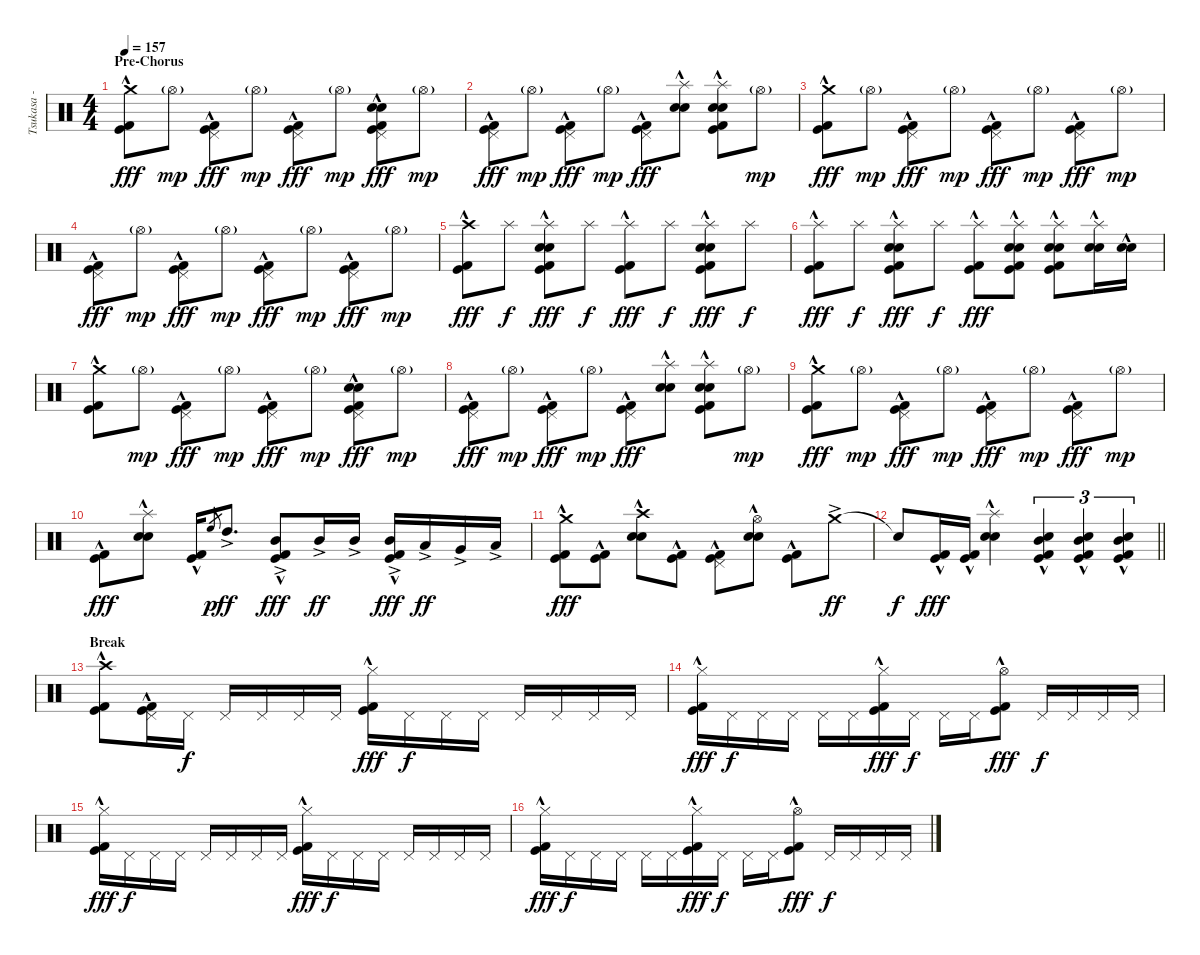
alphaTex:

\track ("Tsukasa - Drums" "Tsukasa - ") {instrument percussion}
\staff {score}
\articulation defaults
\ts (4 4)
\section ("" "Pre-Chorus")
\tempo 157
\clef neutral
\ks c
("Crash medium (hit)" "Kick (hit)"{hac} "Kick (hit) 2"{hac}).8{dy fff} "Hi-Hat (open)"{g}.8{dy mp} ("Pedal Hi-Hat (hit)" "Kick (hit)"{hac} "Kick (hit) 2"{hac}).8{dy fff} "Hi-Hat (open)"{g}.8{dy mp} ("Pedal Hi-Hat (hit)" "Kick (hit)"{hac} "Kick (hit) 2"{hac}).8{dy fff} "Hi-Hat (open)"{g}.8{dy mp} ("Pedal Hi-Hat (hit)" "Electric Snare (hit)"{hac} "Snare (hit) 2"{hac} "Kick (hit)"{hac} "Kick (hit) 2"{hac}).8{dy fff} "Hi-Hat (open)"{g}.8{dy mp} |
("Pedal Hi-Hat (hit)" "Kick (hit)"{hac} "Kick (hit) 2"{hac}).8{dy fff} "Hi-Hat (open)"{g}.8{dy mp} ("Pedal Hi-Hat (hit)" "Kick (hit)"{hac} "Kick (hit) 2"{hac}).8{dy fff} "Hi-Hat (open)"{g}.8{dy mp} ("Pedal Hi-Hat (hit)" "Kick (hit)"{hac} "Kick (hit) 2"{hac}).8{dy fff} ("Splash (hit)"{hac} "Electric Snare (hit)"{hac} "Snare (hit) 2"{hac}).8 ("Splash (hit)"{hac} "Electric Snare (hit)"{hac} "Snare (hit) 2"{hac} "Kick (hit)"{hac} "Kick (hit) 2"{hac}).8 "Hi-Hat (open)"{g}.8{dy mp} |
("Crash medium (hit)" "Kick (hit)"{hac} "Kick (hit) 2"{hac}).8{dy fff} "Hi-Hat (open)"{g}.8{dy mp} ("Pedal Hi-Hat (hit)" "Kick (hit)"{hac} "Kick (hit) 2"{hac}).8{dy fff} "Hi-Hat (open)"{g}.8{dy mp} ("Pedal Hi-Hat (hit)" "Kick (hit)"{hac} "Kick (hit) 2"{hac}).8{dy fff} "Hi-Hat (open)"{g}.8{dy mp} ("Pedal Hi-Hat (hit)" "Kick (hit)"{hac} "Kick (hit) 2"{hac}).8{dy fff} "Hi-Hat (open)"{g}.8{dy mp} |
("Pedal Hi-Hat (hit)" "Kick (hit)"{hac} "Kick (hit) 2"{hac}).8{dy fff} "Hi-Hat (open)"{g}.8{dy mp} ("Pedal Hi-Hat (hit)" "Kick (hit)"{hac} "Kick (hit) 2"{hac}).8{dy fff} "Hi-Hat (open)"{g}.8{dy mp} ("Pedal Hi-Hat (hit)" "Kick (hit)"{hac} "Kick (hit) 2"{hac}).8{dy fff} "Hi-Hat (open)"{g}.8{dy mp} ("Pedal Hi-Hat (hit)" "Kick (hit)"{hac} "Kick (hit) 2"{hac}).8{dy fff} "Hi-Hat (open)"{g}.8{dy mp} |
("Crash high (hit)" "Kick (hit)"{hac} "Kick (hit) 2"{hac}).8{dy fff} "Splash (hit)".8{dy f} ("Splash (hit)"{hac} "Electric Snare (hit)"{hac} "Snare (hit) 2" "Kick (hit)"{hac} "Kick (hit) 2"{hac}).8{dy fff} "Splash (hit)".8{dy f} ("Splash (hit)"{hac} "Kick (hit)"{hac} "Kick (hit) 2"{hac}).8{dy fff} "Splash (hit)".8{dy f} ("Splash (hit)"{hac} "Electric Snare (hit)"{hac} "Snare (hit) 2" "Kick (hit)"{hac} "Kick (hit) 2"{hac}).8{dy fff} "Splash (hit)".8{dy f} |
("Splash (hit)"{hac} "Kick (hit)"{hac} "Kick (hit) 2"{hac}).8{dy fff} "Splash (hit)".8{dy f} ("Splash (hit)"{hac} "Electric Snare (hit)"{hac} "Snare (hit) 2" "Kick (hit)"{hac} "Kick (hit) 2"{hac}).8{dy fff} "Splash (hit)".8{dy f} ("Splash (hit)"{hac} "Kick (hit)"{hac} "Kick (hit) 2"{hac}).8{dy fff} ("Splash (hit)" "Electric Snare (hit)"{hac} "Snare (hit) 2"{hac} "Kick (hit)"{hac} "Kick (hit) 2"{hac}).8 ("Splash (hit)"{hac} "Electric Snare (hit)"{hac} "Snare (hit) 2"{hac} "Kick (hit)"{hac} "Kick (hit) 2"{hac}).8 ("Splash (hit)" "Electric Snare (hit)"{hac} "Snare (hit) 2"{hac}).16 ("Electric Snare (hit)"{hac} "Snare (hit) 2"{hac}).16 |
("Crash medium (hit)" "Kick (hit)"{hac} "Kick (hit) 2"{hac}).8 "Hi-Hat (open)"{g}.8{dy mp} ("Pedal Hi-Hat (hit)" "Kick (hit)"{hac} "Kick (hit) 2"{hac}).8{dy fff} "Hi-Hat (open)"{g}.8{dy mp} ("Pedal Hi-Hat (hit)" "Kick (hit)"{hac} "Kick (hit) 2"{hac}).8{dy fff} "Hi-Hat (open)"{g}.8{dy mp} ("Pedal Hi-Hat (hit)" "Electric Snare (hit)"{hac} "Snare (hit) 2"{hac} "Kick (hit)"{hac} "Kick (hit) 2"{hac}).8{dy fff} "Hi-Hat (open)"{g}.8{dy mp} |
("Pedal Hi-Hat (hit)" "Kick (hit)"{hac} "Kick (hit) 2"{hac}).8{dy fff} "Hi-Hat (open)"{g}.8{dy mp} ("Pedal Hi-Hat (hit)" "Kick (hit)"{hac} "Kick (hit) 2"{hac}).8{dy fff} "Hi-Hat (open)"{g}.8{dy mp} ("Pedal Hi-Hat (hit)" "Kick (hit)"{hac} "Kick (hit) 2"{hac}).8{dy fff} ("Splash (hit)"{hac} "Electric Snare (hit)"{hac} "Snare (hit) 2"{hac}).8 ("Splash (hit)"{hac} "Electric Snare (hit)"{hac} "Snare (hit) 2"{hac} "Kick (hit)"{hac} "Kick (hit) 2"{hac}).8 "Hi-Hat (open)"{g}.8{dy mp} |
("Crash medium (hit)" "Kick (hit)"{hac} "Kick (hit) 2"{hac}).8{dy fff} "Hi-Hat (open)"{g}.8{dy mp} ("Pedal Hi-Hat (hit)" "Kick (hit)"{hac} "Kick (hit) 2"{hac}).8{dy fff} "Hi-Hat (open)"{g}.8{dy mp} ("Pedal Hi-Hat (hit)" "Kick (hit)"{hac} "Kick (hit) 2"{hac}).8{dy fff} "Hi-Hat (open)"{g}.8{dy mp} ("Pedal Hi-Hat (hit)" "Kick (hit)"{hac} "Kick (hit) 2"{hac}).8{dy fff} "Hi-Hat (open)"{g}.8{dy mp} |
("Kick (hit)"{hac} "Kick (hit) 2"{hac}).8{dy fff} ("Splash (hit)"{hac} "Electric Snare (hit)"{hac} "Snare (hit) 2"{hac}).8 ("Kick (hit)"{hac} "Kick (hit) 2"{hac}).16 "High Floor Tom (hit)".8{gr dy p} "High Tom (hit)"{ac}.8{d dy ff} ("Mid Tom (hit)"{ac} "Kick (hit)"{hac} "Kick (hit) 2"{hac}).8{dy fff} "Mid Tom (hit)"{ac}.16{dy ff} "Mid Tom (hit)"{ac}.16 ("Mid Tom (hit)"{ac} "Kick (hit)"{hac} "Kick (hit) 2"{hac}).16{dy fff} "Low Tom (hit)"{ac}.16{dy ff} "Very Low Tom (hit)"{ac}.16 "Low Floor Tom (hit)"{ac}.16 |
("Crash medium (hit)" "Kick (hit)"{hac} "Kick (hit) 2"{hac}).8{dy fff} ("Kick (hit)"{hac} "Kick (hit) 2"{hac}).8 ("Crash high (hit)" "Electric Snare (hit)"{hac} "Snare (hit) 2"{hac}).8 ("Kick (hit)"{hac} "Kick (hit) 2"{hac}).8 ("Pedal Hi-Hat (hit)" "Kick (hit)"{hac} "Kick (hit) 2"{hac}).8 ("Hi-Hat (open)" "Electric Snare (hit)"{hac} "Snare (hit) 2"{hac}).8 ("Kick (hit)"{hac} "Kick (hit) 2"{hac}).8 "Crash medium (hit)"{ac}.8{dy ff} |
\barLineRight lightlight "Snare (hit)"{t}.8{dy f}
("Kick (hit)"{hac} "Kick (hit) 2"{hac}).16{dy fff} ("Kick (hit)"{hac} "Kick (hit) 2"{hac}).16 ("Splash (hit)"{hac} "Electric Snare (hit)"{hac} "Snare (hit) 2"{hac}).4 ("Electric Snare (hit)"{hac} "Mid Tom (hit)" "Kick (hit)"{hac} "Kick (hit) 2"{hac}).4{tu (3 2)} ("Electric Snare (hit)"{hac} "Mid Tom (hit)" "Kick (hit)"{hac} "Kick (hit) 2"{hac}).4{tu (3 2)} ("Electric Snare (hit)"{hac} "Mid Tom (hit)" "Kick (hit)"{hac} "Kick (hit) 2"{hac}).4{tu (3 2)} |
\section ("" "Break")
("Crash high (hit)" "Kick (hit)"{hac} "Kick (hit) 2"{hac}).8 ("Pedal Hi-Hat (hit)" "Kick (hit)"{hac} "Kick (hit) 2"{hac}).16 "Pedal Hi-Hat (hit)".16{dy f} "Pedal Hi-Hat (hit)".16 "Pedal Hi-Hat (hit)".16 "Pedal Hi-Hat (hit)".16 "Pedal Hi-Hat (hit)".16 ("Hi-Hat (closed)" "Kick (hit)"{hac} "Kick (hit) 2"{hac}).16{dy fff} "Pedal Hi-Hat (hit)".16{dy f} "Pedal Hi-Hat (hit)".16 "Pedal Hi-Hat (hit)".16 "Pedal Hi-Hat (hit)".16 "Pedal Hi-Hat (hit)".16 "Pedal Hi-Hat (hit)".16 "Pedal Hi-Hat (hit)".16 |
("Hi-Hat (closed)" "Kick (hit)"{hac} "Kick (hit) 2"{hac}).16{dy fff} "Pedal Hi-Hat (hit)".16{dy f} "Pedal Hi-Hat (hit)".16 "Pedal Hi-Hat (hit)".16 "Pedal Hi-Hat (hit)".16 "Pedal Hi-Hat (hit)".16 ("Hi-Hat (closed)" "Kick (hit)"{hac} "Kick (hit) 2"{hac}).16{dy fff} "Pedal Hi-Hat (hit)".16{dy f} "Pedal Hi-Hat (hit)".16 "Pedal Hi-Hat (hit)".16 ("Hi-Hat (open)" "Kick (hit)"{hac} "Kick (hit) 2"{hac}).8{dy fff} "Pedal Hi-Hat (hit)".16{dy f} "Pedal Hi-Hat (hit)".16 "Pedal Hi-Hat (hit)".16 "Pedal Hi-Hat (hit)".16 |
("Hi-Hat (closed)" "Kick (hit)"{hac} "Kick (hit) 2"{hac}).16{dy fff} "Pedal Hi-Hat (hit)".16{dy f} "Pedal Hi-Hat (hit)".16 "Pedal Hi-Hat (hit)".16 "Pedal Hi-Hat (hit)".16 "Pedal Hi-Hat (hit)".16 "Pedal Hi-Hat (hit)".16 "Pedal Hi-Hat (hit)".16 ("Hi-Hat (closed)" "Kick (hit)"{hac} "Kick (hit) 2"{hac}).16{dy fff} "Pedal Hi-Hat (hit)".16{dy f} "Pedal Hi-Hat (hit)".16 "Pedal Hi-Hat (hit)".16 "Pedal Hi-Hat (hit)".16 "Pedal Hi-Hat (hit)".16 "Pedal Hi-Hat (hit)".16 "Pedal Hi-Hat (hit)".16 |
("Hi-Hat (closed)" "Kick (hit)"{hac} "Kick (hit) 2"{hac}).16{dy fff} "Pedal Hi-Hat (hit)".16{dy f} "Pedal Hi-Hat (hit)".16 "Pedal Hi-Hat (hit)".16 "Pedal Hi-Hat (hit)".16 "Pedal Hi-Hat (hit)".16 ("Hi-Hat (closed)" "Kick (hit)"{hac} "Kick (hit) 2"{hac}).16{dy fff} "Pedal Hi-Hat (hit)".16{dy f} "Pedal Hi-Hat (hit)".16 "Pedal Hi-Hat (hit)".16 ("Hi-Hat (open)" "Kick (hit)"{hac} "Kick (hit) 2"{hac}).8{dy fff} "Pedal Hi-Hat (hit)".16{dy f} "Pedal Hi-Hat (hit)".16 "Pedal Hi-Hat (hit)".16 "Pedal Hi-Hat (hit)".16
